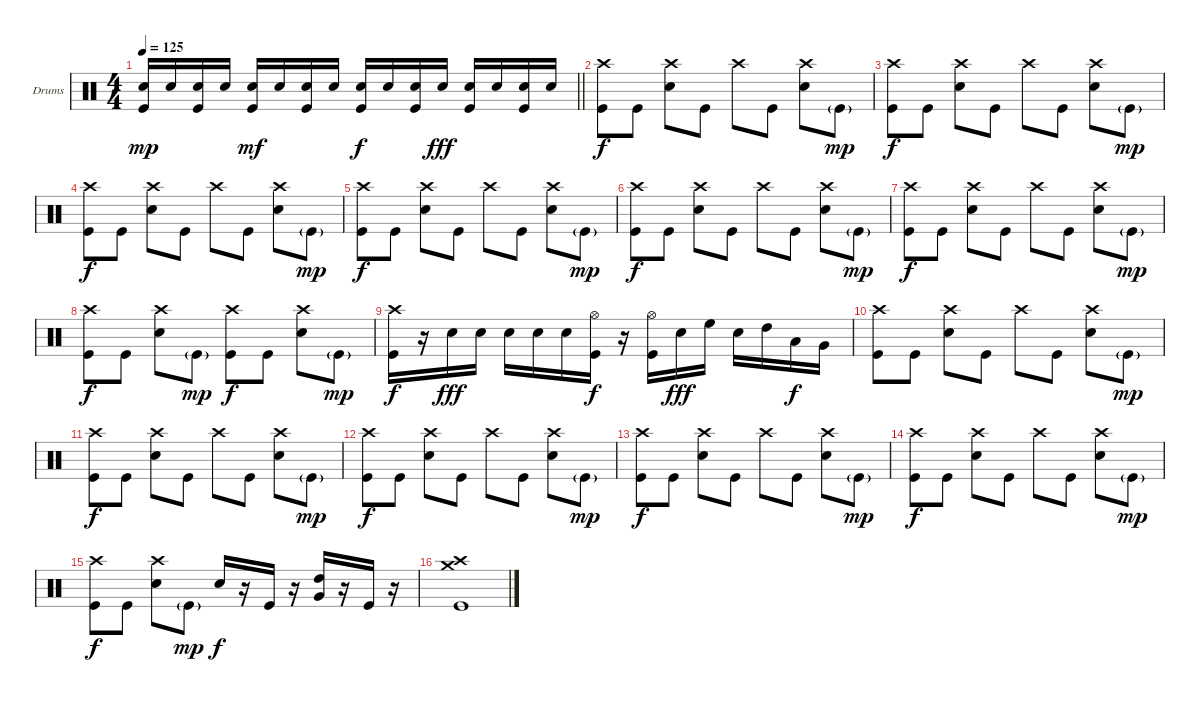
\bracketExtendMode groupsimilarinstruments
\firstSystemTrackNameOrientation horizontal
\otherSystemsTrackNameOrientation horizontal
\track ("Drumkit" "Drums") {instrument percussion}
\staff {score}
\articulation defaults
\ts (4 4)
\tempo 125
\clef neutral
\barLineRight lightlight
\ks c
("Snare (hit) 2" "Kick (hit)").16{dy mp} "Snare (hit) 2".16 ("Snare (hit) 2" "Kick (hit)").16 "Snare (hit) 2".16 ("Snare (hit) 2" "Kick (hit)").16{dy mf} "Snare (hit) 2".16 ("Snare (hit) 2" "Kick (hit)").16 "Snare (hit) 2".16 ("Snare (hit) 2" "Kick (hit)").16{dy f} "Snare (hit) 2".16 ("Snare (hit) 2" "Kick (hit)").16 "Snare (hit) 2".16{dy fff} ("Snare (hit) 2" "Kick (hit)").16 "Snare (hit) 2".16 ("Snare (hit) 2" "Kick (hit)").16 "Snare (hit) 2".16 |
("Crash high (hit)" "Kick (hit)").8{dy f} "Kick (hit)".8 ("Crash high (hit)" "Snare (hit) 2").8 "Kick (hit)".8 "Crash high (hit)".8 "Kick (hit)".8 ("Crash high (hit)" "Snare (hit) 2").8 "Kick (hit)"{g}.8{dy mp} |
("Crash high (hit)" "Kick (hit)").8{dy f} "Kick (hit)".8 ("Crash high (hit)" "Snare (hit) 2").8 "Kick (hit)".8 "Crash high (hit)".8 "Kick (hit)".8 ("Crash high (hit)" "Snare (hit) 2").8 "Kick (hit)"{g}.8{dy mp} |
("Crash high (hit)" "Kick (hit)").8{dy f} "Kick (hit)".8 ("Crash high (hit)" "Snare (hit) 2").8 "Kick (hit)".8 "Crash high (hit)".8 "Kick (hit)".8 ("Crash high (hit)" "Snare (hit) 2").8 "Kick (hit)"{g}.8{dy mp} |
("Crash high (hit)" "Kick (hit)").8{dy f} "Kick (hit)".8 ("Crash high (hit)" "Snare (hit) 2").8 "Kick (hit)".8 "Crash high (hit)".8 "Kick (hit)".8 ("Crash high (hit)" "Snare (hit) 2").8 "Kick (hit)"{g}.8{dy mp} |
("Crash high (hit)" "Kick (hit)").8{dy f} "Kick (hit)".8 ("Crash high (hit)" "Snare (hit) 2").8 "Kick (hit)".8 "Crash high (hit)".8 "Kick (hit)".8 ("Crash high (hit)" "Snare (hit) 2").8 "Kick (hit)"{g}.8{dy mp} |
("Crash high (hit)" "Kick (hit)").8{dy f} "Kick (hit)".8 ("Crash high (hit)" "Snare (hit) 2").8 "Kick (hit)".8 "Crash high (hit)".8 "Kick (hit)".8 ("Crash high (hit)" "Snare (hit) 2").8 "Kick (hit)"{g}.8{dy mp} |
("Crash high (hit)" "Kick (hit)").8{dy f} "Kick (hit)".8 ("Crash high (hit)" "Snare (hit) 2").8 "Kick (hit)"{g}.8{dy mp} ("Crash high (hit)" "Kick (hit)").8{dy f} "Kick (hit)".8 ("Crash high (hit)" "Snare (hit) 2").8 "Kick (hit)"{g}.8{dy mp} |
("Crash high (hit)" "Kick (hit)").16{dy f} r.16 "Snare (hit) 2".16{dy fff} "Snare (hit) 2".16 "Snare (hit) 2".16 "Snare (hit) 2".16 "Snare (hit) 2".16 ("Hi-Hat (open)" "Kick (hit)").16{dy f} r.16 ("Hi-Hat (open)" "Kick (hit)").16 "Snare (hit) 2".16{dy fff} "High Floor Tom (hit)".16 "Snare (hit) 2".16 "High Tom (hit)".16 "Low Tom (hit)".16{dy f} "Very Low Tom (hit)".16 |
("Crash high (hit)" "Kick (hit)").8 "Kick (hit)".8 ("Crash high (hit)" "Snare (hit) 2").8 "Kick (hit)".8 "Crash high (hit)".8 "Kick (hit)".8 ("Crash high (hit)" "Snare (hit) 2").8 "Kick (hit)"{g}.8{dy mp} |
("Crash high (hit)" "Kick (hit)").8{dy f} "Kick (hit)".8 ("Crash high (hit)" "Snare (hit) 2").8 "Kick (hit)".8 "Crash high (hit)".8 "Kick (hit)".8 ("Crash high (hit)" "Snare (hit) 2").8 "Kick (hit)"{g}.8{dy mp} |
("Crash high (hit)" "Kick (hit)").8{dy f} "Kick (hit)".8 ("Crash high (hit)" "Snare (hit) 2").8 "Kick (hit)".8 "Crash high (hit)".8 "Kick (hit)".8 ("Crash high (hit)" "Snare (hit) 2").8 "Kick (hit)"{g}.8{dy mp} |
("Crash high (hit)" "Kick (hit)").8{dy f} "Kick (hit)".8 ("Crash high (hit)" "Snare (hit) 2").8 "Kick (hit)".8 "Crash high (hit)".8 "Kick (hit)".8 ("Crash high (hit)" "Snare (hit) 2").8 "Kick (hit)"{g}.8{dy mp} |
("Crash high (hit)" "Kick (hit)").8{dy f} "Kick (hit)".8 ("Crash high (hit)" "Snare (hit) 2").8 "Kick (hit)".8 "Crash high (hit)".8 "Kick (hit)".8 ("Crash high (hit)" "Snare (hit) 2").8 "Kick (hit)"{g}.8{dy mp} |
("Crash high (hit)" "Kick (hit)").8{dy f} "Kick (hit)".8 ("Crash high (hit)" "Snare (hit) 2").8 "Kick (hit)"{g}.8{dy mp} "Snare (hit) 2".16{dy f} r.16 "Kick (hit)".16 r.16 ("High Tom (hit)" "Very Low Tom (hit)").16 r.16 "Kick (hit)".16 r.16 |
("Crash medium (hit)" "Crash high (hit)" "Kick (hit)").1
